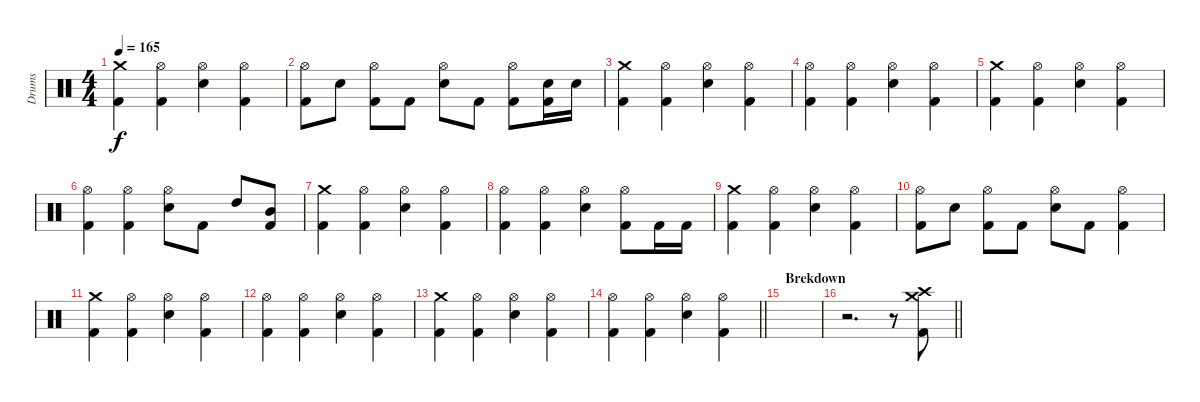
\track ("Drums" "Drums") {instrument percussion}
\staff {score}
\articulation defaults
\ts (4 4)
\tempo 165
\clef neutral
\ks c
("Crash medium (hit)" "Kick (hit) 2").4{dy f} ("Hi-Hat (open)" "Kick (hit) 2").4 ("Hi-Hat (open)" "Electric Snare (hit)").4 ("Hi-Hat (open)" "Kick (hit) 2").4 |
("Hi-Hat (open)" "Kick (hit) 2").8 "Electric Snare (hit)".8 ("Hi-Hat (open)" "Kick (hit) 2").8 "Kick (hit) 2".8 ("Hi-Hat (open)" "Electric Snare (hit)").8 "Kick (hit) 2".8 ("Hi-Hat (open)" "Kick (hit) 2").8 ("Electric Snare (hit)" "Kick (hit) 2").16 "Electric Snare (hit)".16 |
("Crash medium (hit)" "Kick (hit) 2").4 ("Hi-Hat (open)" "Kick (hit) 2").4 ("Hi-Hat (open)" "Electric Snare (hit)").4 ("Hi-Hat (open)" "Kick (hit) 2").4 |
("Hi-Hat (open)" "Kick (hit) 2").4 ("Hi-Hat (open)" "Kick (hit) 2").4 ("Hi-Hat (open)" "Electric Snare (hit)").4 ("Hi-Hat (open)" "Kick (hit) 2").4 |
("Crash medium (hit)" "Kick (hit) 2").4 ("Hi-Hat (open)" "Kick (hit) 2").4 ("Hi-Hat (open)" "Electric Snare (hit)").4 ("Hi-Hat (open)" "Kick (hit) 2").4 |
("Hi-Hat (open)" "Kick (hit) 2").4 ("Hi-Hat (open)" "Kick (hit) 2").4 ("Hi-Hat (open)" "Electric Snare (hit)").8 "Kick (hit) 2".8 "High Tom (hit)".8 ("Mid Tom (hit)" "Kick (hit) 2").8 |
("Crash medium (hit)" "Kick (hit) 2").4 ("Hi-Hat (open)" "Kick (hit) 2").4 ("Hi-Hat (open)" "Electric Snare (hit)").4 ("Hi-Hat (open)" "Kick (hit) 2").4 |
("Hi-Hat (open)" "Kick (hit) 2").4 ("Hi-Hat (open)" "Kick (hit) 2").4 ("Hi-Hat (open)" "Electric Snare (hit)").4 ("Hi-Hat (open)" "Kick (hit) 2").8 "Kick (hit) 2".16 "Kick (hit) 2".16 |
("Crash medium (hit)" "Kick (hit) 2").4 ("Hi-Hat (open)" "Kick (hit) 2").4 ("Hi-Hat (open)" "Electric Snare (hit)").4 ("Hi-Hat (open)" "Kick (hit) 2").4 |
("Hi-Hat (open)" "Kick (hit) 2").8 "Electric Snare (hit)".8 ("Hi-Hat (open)" "Kick (hit) 2").8 "Kick (hit) 2".8 ("Hi-Hat (open)" "Electric Snare (hit)").8 "Kick (hit) 2".8 ("Hi-Hat (open)" "Kick (hit) 2").4 |
("Crash medium (hit)" "Kick (hit) 2").4 ("Hi-Hat (open)" "Kick (hit) 2").4 ("Hi-Hat (open)" "Electric Snare (hit)").4 ("Hi-Hat (open)" "Kick (hit) 2").4 |
("Hi-Hat (open)" "Kick (hit) 2").4 ("Hi-Hat (open)" "Kick (hit) 2").4 ("Hi-Hat (open)" "Electric Snare (hit)").4 ("Hi-Hat (open)" "Kick (hit) 2").4 |
("Crash medium (hit)" "Kick (hit) 2").4 ("Hi-Hat (open)" "Kick (hit) 2").4 ("Hi-Hat (open)" "Electric Snare (hit)").4 ("Hi-Hat (open)" "Kick (hit) 2").4 |
\barLineRight lightlight
("Hi-Hat (open)" "Kick (hit) 2").4 ("Hi-Hat (open)" "Kick (hit) 2").4 ("Hi-Hat (open)" "Electric Snare (hit)").4 ("Hi-Hat (open)" "Kick (hit) 2").4 |
\section ("" "Brekdown")
|
\barLineRight lightlight
r.2{d} r.8 ("Crash medium (hit)" "Crash high (hit)" "Kick (hit) 2").8
